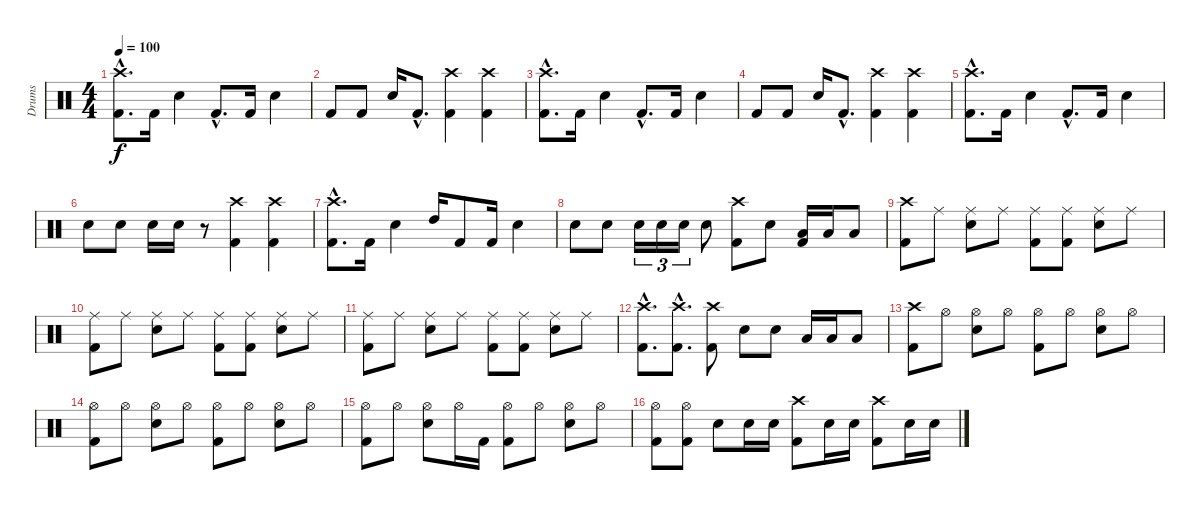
\track ("Drums" "Drums") {instrument percussion}
\staff {score}
\articulation defaults
\ts (4 4)
\tempo 100
\clef neutral
\ks c
("Crash high (hit)"{hac} "Kick (hit) 2"{hac}).8{d dy f} "Kick (hit) 2".16 "Electric Snare (hit)".4 "Kick (hit) 2"{hac}.8{d} "Kick (hit) 2".16 "Electric Snare (hit)".4 |
"Kick (hit) 2".8 "Kick (hit) 2".8 "Electric Snare (hit)".16 "Kick (hit) 2"{hac}.8{d} ("Crash high (hit)" "Kick (hit) 2").4 ("Crash high (hit)" "Kick (hit) 2").4 |
("Crash high (hit)"{hac} "Kick (hit) 2"{hac}).8{d} "Kick (hit) 2".16 "Electric Snare (hit)".4 "Kick (hit) 2"{hac}.8{d} "Kick (hit) 2".16 "Electric Snare (hit)".4 |
"Kick (hit) 2".8 "Kick (hit) 2".8 "Electric Snare (hit)".16 "Kick (hit) 2"{hac}.8{d} ("Crash high (hit)" "Kick (hit) 2").4 ("Crash high (hit)" "Kick (hit) 2").4 |
("Crash high (hit)"{hac} "Kick (hit) 2"{hac}).8{d} "Kick (hit) 2".16 "Electric Snare (hit)".4 "Kick (hit) 2"{hac}.8{d} "Kick (hit) 2".16 "Electric Snare (hit)".4 |
"Electric Snare (hit)".8 "Electric Snare (hit)".8 "Electric Snare (hit)".16 "Electric Snare (hit)".16 r.8 ("Crash high (hit)" "Kick (hit) 2").4 ("Crash high (hit)" "Kick (hit) 2").4 |
("Crash high (hit)"{hac} "Kick (hit) 2"{hac}).8{d} "Kick (hit) 2".16 "Electric Snare (hit)".4 "High Tom (hit)".16 "Kick (hit) 2".8 "Kick (hit) 2".16 "Electric Snare (hit)".4 |
"Electric Snare (hit)".8 "Electric Snare (hit)".8 "Electric Snare (hit)".16{tu (3 2)} "Electric Snare (hit)".16{tu (3 2)} "Electric Snare (hit)".16{tu (3 2)} "Electric Snare (hit)".8 ("Crash high (hit)" "Kick (hit) 2").8 "Electric Snare (hit)".8 ("Low Tom (hit)" "Kick (hit) 2").16 "Low Tom (hit)".16 "Low Tom (hit)".8 |
("Crash high (hit)" "Kick (hit) 2").8 "Ride (middle)".8 ("Ride (middle)" "Electric Snare (hit)").8 "Ride (middle)".8 ("Ride (middle)" "Kick (hit) 2").8 ("Ride (middle)" "Kick (hit) 2").8 ("Ride (middle)" "Electric Snare (hit)").8 "Ride (middle)".8 |
("Ride (middle)" "Kick (hit) 2").8 "Ride (middle)".8 ("Ride (middle)" "Electric Snare (hit)").8 "Ride (middle)".8 ("Ride (middle)" "Kick (hit) 2").8 ("Ride (middle)" "Kick (hit) 2").8 ("Ride (middle)" "Electric Snare (hit)").8 "Ride (middle)".8 |
("Ride (middle)" "Kick (hit) 2").8 "Ride (middle)".8 ("Ride (middle)" "Electric Snare (hit)").8 "Ride (middle)".8 ("Ride (middle)" "Kick (hit) 2").8 ("Ride (middle)" "Kick (hit) 2").8 ("Ride (middle)" "Electric Snare (hit)").8 "Ride (middle)".8 |
("Crash high (hit)"{hac} "Kick (hit) 2"{hac}).8{d} ("Crash high (hit)"{hac} "Kick (hit) 2"{hac}).8{d} ("Crash high (hit)" "Kick (hit) 2").8 "Electric Snare (hit)".8 "Electric Snare (hit)".8 "Low Tom (hit)".16 "Low Tom (hit)".16 "Low Tom (hit)".8 |
("Crash high (hit)" "Kick (hit) 2").8 "Hi-Hat (open)".8 ("Hi-Hat (open)" "Electric Snare (hit)").8 "Hi-Hat (open)".8 ("Hi-Hat (open)" "Kick (hit) 2").8 "Hi-Hat (open)".8 ("Hi-Hat (open)" "Electric Snare (hit)").8 "Hi-Hat (open)".8 |
("Hi-Hat (open)" "Kick (hit) 2").8 "Hi-Hat (open)".8 ("Hi-Hat (open)" "Electric Snare (hit)").8 "Hi-Hat (open)".8 ("Hi-Hat (open)" "Kick (hit) 2").8 "Hi-Hat (open)".8 ("Hi-Hat (open)" "Electric Snare (hit)").8 "Hi-Hat (open)".8 |
("Hi-Hat (open)" "Kick (hit) 2").8 "Hi-Hat (open)".8 ("Hi-Hat (open)" "Electric Snare (hit)").8 "Hi-Hat (open)".16 "Kick (hit) 2".16 ("Hi-Hat (open)" "Kick (hit) 2").8 "Hi-Hat (open)".8 ("Hi-Hat (open)" "Electric Snare (hit)").8 "Hi-Hat (open)".8 |
("Hi-Hat (open)" "Kick (hit) 2").8 ("Hi-Hat (open)" "Kick (hit) 2").8 "Electric Snare (hit)".8 "Electric Snare (hit)".16 "Electric Snare (hit)".16 ("Crash high (hit)" "Kick (hit) 2").8 "Electric Snare (hit)".16 "Electric Snare (hit)".16 ("Crash high (hit)" "Kick (hit) 2").8 "Electric Snare (hit)".16 "Electric Snare (hit)".16
